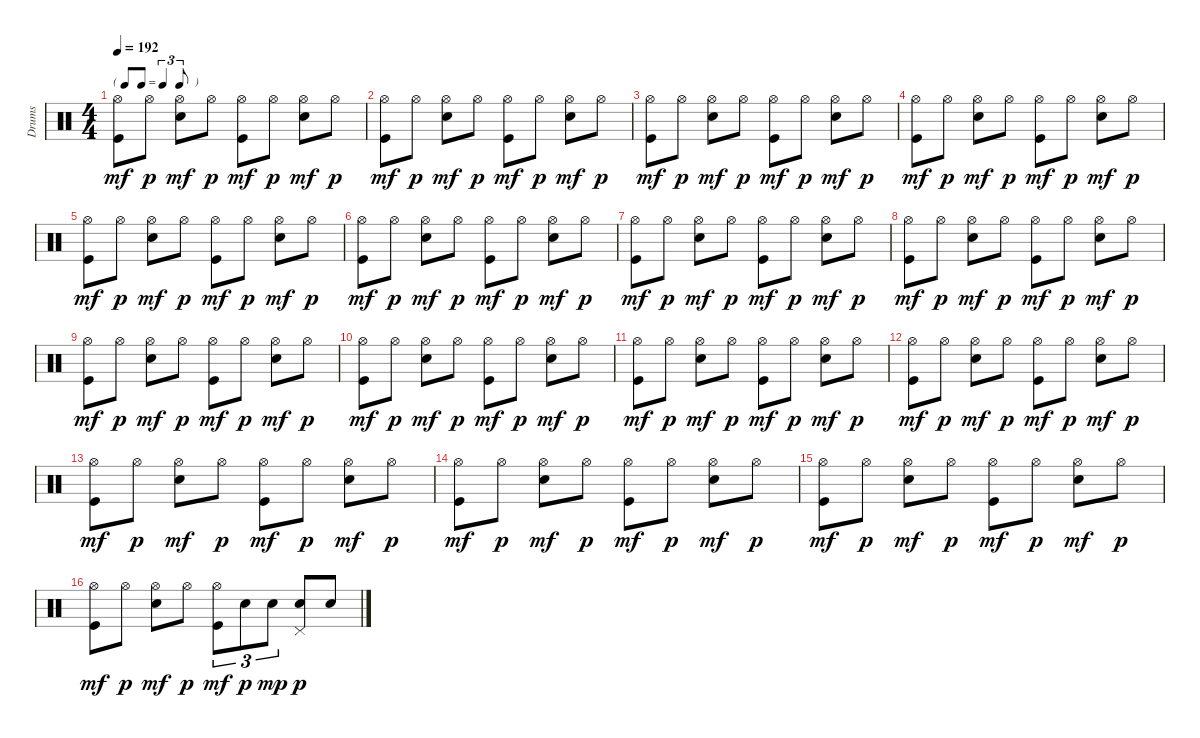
\track ("Drums" "Drums") {instrument percussion}
\staff {score}
\articulation defaults
\ts (4 4)
\tf triplet8th
\tempo 192
\clef neutral
\ks c
("Hi-Hat (open)" "Kick (hit)").8{dy mf} "Hi-Hat (open)".8{dy p} ("Hi-Hat (open)" "Snare (hit) 2").8{dy mf} "Hi-Hat (open)".8{dy p} ("Hi-Hat (open)" "Kick (hit)").8{dy mf} "Hi-Hat (open)".8{dy p} ("Hi-Hat (open)" "Snare (hit) 2").8{dy mf} "Hi-Hat (open)".8{dy p} |
("Hi-Hat (open)" "Kick (hit)").8{dy mf} "Hi-Hat (open)".8{dy p} ("Hi-Hat (open)" "Snare (hit) 2").8{dy mf} "Hi-Hat (open)".8{dy p} ("Hi-Hat (open)" "Kick (hit)").8{dy mf} "Hi-Hat (open)".8{dy p} ("Hi-Hat (open)" "Snare (hit) 2").8{dy mf} "Hi-Hat (open)".8{dy p} |
("Hi-Hat (open)" "Kick (hit)").8{dy mf} "Hi-Hat (open)".8{dy p} ("Hi-Hat (open)" "Snare (hit) 2").8{dy mf} "Hi-Hat (open)".8{dy p} ("Hi-Hat (open)" "Kick (hit)").8{dy mf} "Hi-Hat (open)".8{dy p} ("Hi-Hat (open)" "Snare (hit) 2").8{dy mf} "Hi-Hat (open)".8{dy p} |
("Hi-Hat (open)" "Kick (hit)").8{dy mf} "Hi-Hat (open)".8{dy p} ("Hi-Hat (open)" "Snare (hit) 2").8{dy mf} "Hi-Hat (open)".8{dy p} ("Hi-Hat (open)" "Kick (hit)").8{dy mf} "Hi-Hat (open)".8{dy p} ("Hi-Hat (open)" "Snare (hit) 2").8{dy mf} "Hi-Hat (open)".8{dy p} |
("Hi-Hat (open)" "Kick (hit)").8{dy mf} "Hi-Hat (open)".8{dy p} ("Hi-Hat (open)" "Snare (hit) 2").8{dy mf} "Hi-Hat (open)".8{dy p} ("Hi-Hat (open)" "Kick (hit)").8{dy mf} "Hi-Hat (open)".8{dy p} ("Hi-Hat (open)" "Snare (hit) 2").8{dy mf} "Hi-Hat (open)".8{dy p} |
("Hi-Hat (open)" "Kick (hit)").8{dy mf} "Hi-Hat (open)".8{dy p} ("Hi-Hat (open)" "Snare (hit) 2").8{dy mf} "Hi-Hat (open)".8{dy p} ("Hi-Hat (open)" "Kick (hit)").8{dy mf} "Hi-Hat (open)".8{dy p} ("Hi-Hat (open)" "Snare (hit) 2").8{dy mf} "Hi-Hat (open)".8{dy p} |
("Hi-Hat (open)" "Kick (hit)").8{dy mf} "Hi-Hat (open)".8{dy p} ("Hi-Hat (open)" "Snare (hit) 2").8{dy mf} "Hi-Hat (open)".8{dy p} ("Hi-Hat (open)" "Kick (hit)").8{dy mf} "Hi-Hat (open)".8{dy p} ("Hi-Hat (open)" "Snare (hit) 2").8{dy mf} "Hi-Hat (open)".8{dy p} |
("Hi-Hat (open)" "Kick (hit)").8{dy mf} "Hi-Hat (open)".8{dy p} ("Hi-Hat (open)" "Snare (hit) 2").8{dy mf} "Hi-Hat (open)".8{dy p} ("Hi-Hat (open)" "Kick (hit)").8{dy mf} "Hi-Hat (open)".8{dy p} ("Hi-Hat (open)" "Snare (hit) 2").8{dy mf} "Hi-Hat (open)".8{dy p} |
("Hi-Hat (open)" "Kick (hit)").8{dy mf} "Hi-Hat (open)".8{dy p} ("Hi-Hat (open)" "Snare (hit) 2").8{dy mf} "Hi-Hat (open)".8{dy p} ("Hi-Hat (open)" "Kick (hit)").8{dy mf} "Hi-Hat (open)".8{dy p} ("Hi-Hat (open)" "Snare (hit) 2").8{dy mf} "Hi-Hat (open)".8{dy p} |
("Hi-Hat (open)" "Kick (hit)").8{dy mf} "Hi-Hat (open)".8{dy p} ("Hi-Hat (open)" "Snare (hit) 2").8{dy mf} "Hi-Hat (open)".8{dy p} ("Hi-Hat (open)" "Kick (hit)").8{dy mf} "Hi-Hat (open)".8{dy p} ("Hi-Hat (open)" "Snare (hit) 2").8{dy mf} "Hi-Hat (open)".8{dy p} |
("Hi-Hat (open)" "Kick (hit)").8{dy mf} "Hi-Hat (open)".8{dy p} ("Hi-Hat (open)" "Snare (hit) 2").8{dy mf} "Hi-Hat (open)".8{dy p} ("Hi-Hat (open)" "Kick (hit)").8{dy mf} "Hi-Hat (open)".8{dy p} ("Hi-Hat (open)" "Snare (hit) 2").8{dy mf} "Hi-Hat (open)".8{dy p} |
("Hi-Hat (open)" "Kick (hit)").8{dy mf} "Hi-Hat (open)".8{dy p} ("Hi-Hat (open)" "Snare (hit) 2").8{dy mf} "Hi-Hat (open)".8{dy p} ("Hi-Hat (open)" "Kick (hit)").8{dy mf} "Hi-Hat (open)".8{dy p} ("Hi-Hat (open)" "Snare (hit) 2").8{dy mf} "Hi-Hat (open)".8{dy p} |
("Hi-Hat (open)" "Kick (hit)").8{dy mf} "Hi-Hat (open)".8{dy p} ("Hi-Hat (open)" "Snare (hit) 2").8{dy mf} "Hi-Hat (open)".8{dy p} ("Hi-Hat (open)" "Kick (hit)").8{dy mf} "Hi-Hat (open)".8{dy p} ("Hi-Hat (open)" "Snare (hit) 2").8{dy mf} "Hi-Hat (open)".8{dy p} |
("Hi-Hat (open)" "Kick (hit)").8{dy mf} "Hi-Hat (open)".8{dy p} ("Hi-Hat (open)" "Snare (hit) 2").8{dy mf} "Hi-Hat (open)".8{dy p} ("Hi-Hat (open)" "Kick (hit)").8{dy mf} "Hi-Hat (open)".8{dy p} ("Hi-Hat (open)" "Snare (hit) 2").8{dy mf} "Hi-Hat (open)".8{dy p} |
("Hi-Hat (open)" "Kick (hit)").8{dy mf} "Hi-Hat (open)".8{dy p} ("Hi-Hat (open)" "Snare (hit) 2").8{dy mf} "Hi-Hat (open)".8{dy p} ("Hi-Hat (open)" "Kick (hit)").8{dy mf} "Hi-Hat (open)".8{dy p} ("Hi-Hat (open)" "Snare (hit) 2").8{dy mf} "Hi-Hat (open)".8{dy p} |
("Hi-Hat (open)" "Kick (hit)").8{dy mf} "Hi-Hat (open)".8{dy p} ("Hi-Hat (open)" "Snare (hit) 2").8{dy mf} "Hi-Hat (open)".8{dy p} ("Hi-Hat (open)" "Kick (hit)").8{tu (3 2) dy mf} "Snare (hit) 2".8{tu (3 2) dy p} "Snare (hit) 2".8{tu (3 2) dy mp} ("Pedal Hi-Hat (hit)" "Snare (hit) 2").8{dy p} "Snare (hit) 2".8
